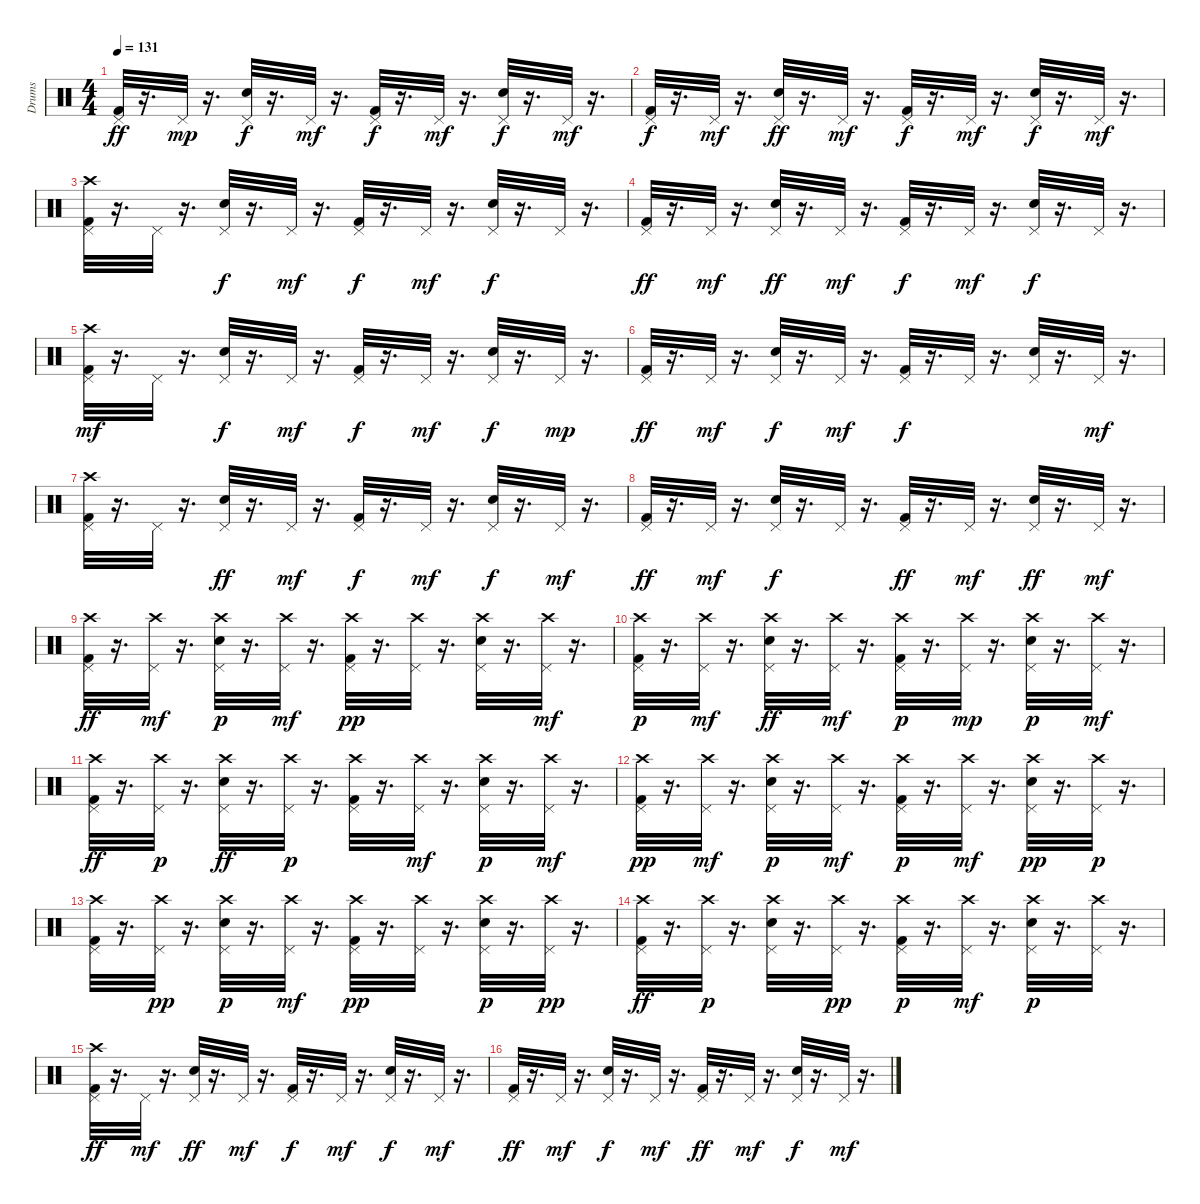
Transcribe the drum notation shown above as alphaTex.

\track ("Drums" "Drums") {instrument percussion}
\staff {score}
\articulation defaults
\ts (4 4)
\tempo 131
\clef neutral
\ks c
("Kick (hit) 2" "Pedal Hi-Hat (hit)").32{dy ff} r.16{d} "Pedal Hi-Hat (hit)".32{dy mp} r.16{d} ("Snare (hit) 2" "Pedal Hi-Hat (hit)").32{dy f} r.16{d} "Pedal Hi-Hat (hit)".32{dy mf} r.16{d} ("Pedal Hi-Hat (hit)" "Kick (hit) 2").32{dy f} r.16{d} "Pedal Hi-Hat (hit)".32{dy mf} r.16{d} ("Pedal Hi-Hat (hit)" "Snare (hit) 2").32{dy f} r.16{d} "Pedal Hi-Hat (hit)".32{dy mf} r.16{d} |
("Pedal Hi-Hat (hit)" "Kick (hit) 2").32{dy f} r.16{d} "Pedal Hi-Hat (hit)".32{dy mf} r.16{d} ("Pedal Hi-Hat (hit)" "Snare (hit) 2").32{dy ff} r.16{d} "Pedal Hi-Hat (hit)".32{dy mf} r.16{d} ("Pedal Hi-Hat (hit)" "Kick (hit) 2").32{dy f} r.16{d} "Pedal Hi-Hat (hit)".32{dy mf} r.16{d} ("Snare (hit) 2" "Pedal Hi-Hat (hit)").32{dy f} r.16{d} "Pedal Hi-Hat (hit)".32{dy mf} r.16{d} |
("Pedal Hi-Hat (hit)" "Kick (hit) 2" "Crash high (hit)").32 r.16{d} "Pedal Hi-Hat (hit)".32 r.16{d} ("Pedal Hi-Hat (hit)" "Snare (hit) 2").32{dy f} r.16{d} "Pedal Hi-Hat (hit)".32{dy mf} r.16{d} ("Pedal Hi-Hat (hit)" "Kick (hit) 2").32{dy f} r.16{d} "Pedal Hi-Hat (hit)".32{dy mf} r.16{d} ("Snare (hit) 2" "Pedal Hi-Hat (hit)").32{dy f} r.16{d} "Pedal Hi-Hat (hit)".32 r.16{d} |
("Kick (hit) 2" "Pedal Hi-Hat (hit)").32{dy ff} r.16{d} "Pedal Hi-Hat (hit)".32{dy mf} r.16{d} ("Pedal Hi-Hat (hit)" "Snare (hit) 2").32{dy ff} r.16{d} "Pedal Hi-Hat (hit)".32{dy mf} r.16{d} ("Pedal Hi-Hat (hit)" "Kick (hit) 2").32{dy f} r.16{d} "Pedal Hi-Hat (hit)".32{dy mf} r.16{d} ("Pedal Hi-Hat (hit)" "Snare (hit) 2").32{dy f} r.16{d} "Pedal Hi-Hat (hit)".32 r.16{d} |
("Pedal Hi-Hat (hit)" "Kick (hit) 2" "Crash high (hit)").32{dy mf} r.16{d} "Pedal Hi-Hat (hit)".32 r.16{d} ("Pedal Hi-Hat (hit)" "Snare (hit) 2").32{dy f} r.16{d} "Pedal Hi-Hat (hit)".32{dy mf} r.16{d} ("Pedal Hi-Hat (hit)" "Kick (hit) 2").32{dy f} r.16{d} "Pedal Hi-Hat (hit)".32{dy mf} r.16{d} ("Snare (hit) 2" "Pedal Hi-Hat (hit)").32{dy f} r.16{d} "Pedal Hi-Hat (hit)".32{dy mp} r.16{d} |
("Pedal Hi-Hat (hit)" "Kick (hit) 2").32{dy ff} r.16{d} "Pedal Hi-Hat (hit)".32{dy mf} r.16{d} ("Pedal Hi-Hat (hit)" "Snare (hit) 2").32{dy f} r.16{d} "Pedal Hi-Hat (hit)".32{dy mf} r.16{d} ("Pedal Hi-Hat (hit)" "Kick (hit) 2").32{dy f} r.16{d} "Pedal Hi-Hat (hit)".32 r.16{d} ("Pedal Hi-Hat (hit)" "Snare (hit) 2").32 r.16{d} "Pedal Hi-Hat (hit)".32{dy mf} r.16{d} |
("Pedal Hi-Hat (hit)" "Crash high (hit)" "Kick (hit) 2").32 r.16{d} "Pedal Hi-Hat (hit)".32 r.16{d} ("Snare (hit) 2" "Pedal Hi-Hat (hit)").32{dy ff} r.16{d} "Pedal Hi-Hat (hit)".32{dy mf} r.16{d} ("Pedal Hi-Hat (hit)" "Kick (hit) 2").32{dy f} r.16{d} "Pedal Hi-Hat (hit)".32{dy mf} r.16{d} ("Snare (hit) 2" "Pedal Hi-Hat (hit)").32{dy f} r.16{d} "Pedal Hi-Hat (hit)".32{dy mf} r.16{d} |
("Kick (hit) 2" "Pedal Hi-Hat (hit)").32{dy ff} r.16{d} "Pedal Hi-Hat (hit)".32{dy mf} r.16{d} ("Pedal Hi-Hat (hit)" "Snare (hit) 2").32{dy f} r.16{d} "Pedal Hi-Hat (hit)".32 r.16{d} ("Pedal Hi-Hat (hit)" "Kick (hit) 2").32{dy ff} r.16{d} "Pedal Hi-Hat (hit)".32{dy mf} r.16{d} ("Pedal Hi-Hat (hit)" "Snare (hit) 2").32{dy ff} r.16{d} "Pedal Hi-Hat (hit)".32{dy mf} r.16{d} |
("Crash high (hit)" "Pedal Hi-Hat (hit)" "Kick (hit) 2").32{dy ff} r.16{d} ("Crash high (hit)" "Pedal Hi-Hat (hit)").32{dy mf} r.16{d} ("Pedal Hi-Hat (hit)" "Snare (hit) 2" "Crash high (hit)").32{dy p} r.16{d} ("Crash high (hit)" "Pedal Hi-Hat (hit)").32{dy mf} r.16{d} ("Crash high (hit)" "Kick (hit) 2" "Pedal Hi-Hat (hit)").32{dy pp} r.16{d} ("Pedal Hi-Hat (hit)" "Crash high (hit)").32 r.16{d} ("Crash high (hit)" "Snare (hit) 2" "Pedal Hi-Hat (hit)").32 r.16{d} ("Crash high (hit)" "Pedal Hi-Hat (hit)").32{dy mf} r.16{d} |
("Pedal Hi-Hat (hit)" "Crash high (hit)" "Kick (hit) 2").32{dy p} r.16{d} ("Crash high (hit)" "Pedal Hi-Hat (hit)").32{dy mf} r.16{d} ("Snare (hit) 2" "Crash high (hit)" "Pedal Hi-Hat (hit)").32{dy ff} r.16{d} ("Crash high (hit)" "Pedal Hi-Hat (hit)").32{dy mf} r.16{d} ("Pedal Hi-Hat (hit)" "Crash high (hit)" "Kick (hit) 2").32{dy p} r.16{d} ("Crash high (hit)" "Pedal Hi-Hat (hit)").32{dy mp} r.16{d} ("Snare (hit) 2" "Crash high (hit)" "Pedal Hi-Hat (hit)").32{dy p} r.16{d} ("Crash high (hit)" "Pedal Hi-Hat (hit)").32{dy mf} r.16{d} |
("Pedal Hi-Hat (hit)" "Crash high (hit)" "Kick (hit) 2").32{dy ff} r.16{d} ("Crash high (hit)" "Pedal Hi-Hat (hit)").32{dy p} r.16{d} ("Pedal Hi-Hat (hit)" "Crash high (hit)" "Snare (hit) 2").32{dy ff} r.16{d} ("Pedal Hi-Hat (hit)" "Crash high (hit)").32{dy p} r.16{d} ("Pedal Hi-Hat (hit)" "Kick (hit) 2" "Crash high (hit)").32 r.16{d} ("Crash high (hit)" "Pedal Hi-Hat (hit)").32{dy mf} r.16{d} ("Pedal Hi-Hat (hit)" "Crash high (hit)" "Snare (hit) 2").32{dy p} r.16{d} ("Crash high (hit)" "Pedal Hi-Hat (hit)").32{dy mf} r.16{d} |
("Kick (hit) 2" "Crash high (hit)" "Pedal Hi-Hat (hit)").32{dy pp} r.16{d} ("Crash high (hit)" "Pedal Hi-Hat (hit)").32{dy mf} r.16{d} ("Crash high (hit)" "Pedal Hi-Hat (hit)" "Snare (hit) 2").32{dy p} r.16{d} ("Crash high (hit)" "Pedal Hi-Hat (hit)").32{dy mf} r.16{d} ("Pedal Hi-Hat (hit)" "Kick (hit) 2" "Crash high (hit)").32{dy p} r.16{d} ("Crash high (hit)" "Pedal Hi-Hat (hit)").32{dy mf} r.16{d} ("Crash high (hit)" "Pedal Hi-Hat (hit)" "Snare (hit) 2").32{dy pp} r.16{d} ("Pedal Hi-Hat (hit)" "Crash high (hit)").32{dy p} r.16{d} |
("Crash high (hit)" "Pedal Hi-Hat (hit)" "Kick (hit) 2").32 r.16{d} ("Pedal Hi-Hat (hit)" "Crash high (hit)").32{dy pp} r.16{d} ("Pedal Hi-Hat (hit)" "Snare (hit) 2" "Crash high (hit)").32{dy p} r.16{d} ("Crash high (hit)" "Pedal Hi-Hat (hit)").32{dy mf} r.16{d} ("Kick (hit) 2" "Crash high (hit)" "Pedal Hi-Hat (hit)").32{dy pp} r.16{d} ("Pedal Hi-Hat (hit)" "Crash high (hit)").32 r.16{d} ("Crash high (hit)" "Snare (hit) 2" "Pedal Hi-Hat (hit)").32{dy p} r.16{d} ("Pedal Hi-Hat (hit)" "Crash high (hit)").32{dy pp} r.16{d} |
("Kick (hit) 2" "Crash high (hit)" "Pedal Hi-Hat (hit)").32{dy ff} r.16{d} ("Crash high (hit)" "Pedal Hi-Hat (hit)").32{dy p} r.16{d} ("Snare (hit) 2" "Pedal Hi-Hat (hit)" "Crash high (hit)").32 r.16{d} ("Pedal Hi-Hat (hit)" "Crash high (hit)").32{dy pp} r.16{d} ("Crash high (hit)" "Pedal Hi-Hat (hit)" "Kick (hit) 2").32{dy p} r.16{d} ("Crash high (hit)" "Pedal Hi-Hat (hit)").32{dy mf} r.16{d} ("Pedal Hi-Hat (hit)" "Crash high (hit)" "Snare (hit) 2").32{dy p} r.16{d} ("Pedal Hi-Hat (hit)" "Crash high (hit)").32 r.16{d} |
("Crash high (hit)" "Pedal Hi-Hat (hit)" "Kick (hit) 2").32{dy ff} r.16{d} "Pedal Hi-Hat (hit)".32{dy mf} r.16{d} ("Snare (hit) 2" "Pedal Hi-Hat (hit)").32{dy ff} r.16{d} "Pedal Hi-Hat (hit)".32{dy mf} r.16{d} ("Pedal Hi-Hat (hit)" "Kick (hit) 2").32{dy f} r.16{d} "Pedal Hi-Hat (hit)".32{dy mf} r.16{d} ("Snare (hit) 2" "Pedal Hi-Hat (hit)").32{dy f} r.16{d} "Pedal Hi-Hat (hit)".32{dy mf} r.16{d} |
("Pedal Hi-Hat (hit)" "Kick (hit) 2").32{dy ff} r.16{d} "Pedal Hi-Hat (hit)".32{dy mf} r.16{d} ("Snare (hit) 2" "Pedal Hi-Hat (hit)").32{dy f} r.16{d} "Pedal Hi-Hat (hit)".32{dy mf} r.16{d} ("Pedal Hi-Hat (hit)" "Kick (hit) 2").32{dy ff} r.16{d} "Pedal Hi-Hat (hit)".32{dy mf} r.16{d} ("Pedal Hi-Hat (hit)" "Snare (hit) 2").32{dy f} r.16{d} "Pedal Hi-Hat (hit)".32{dy mf} r.16{d}
